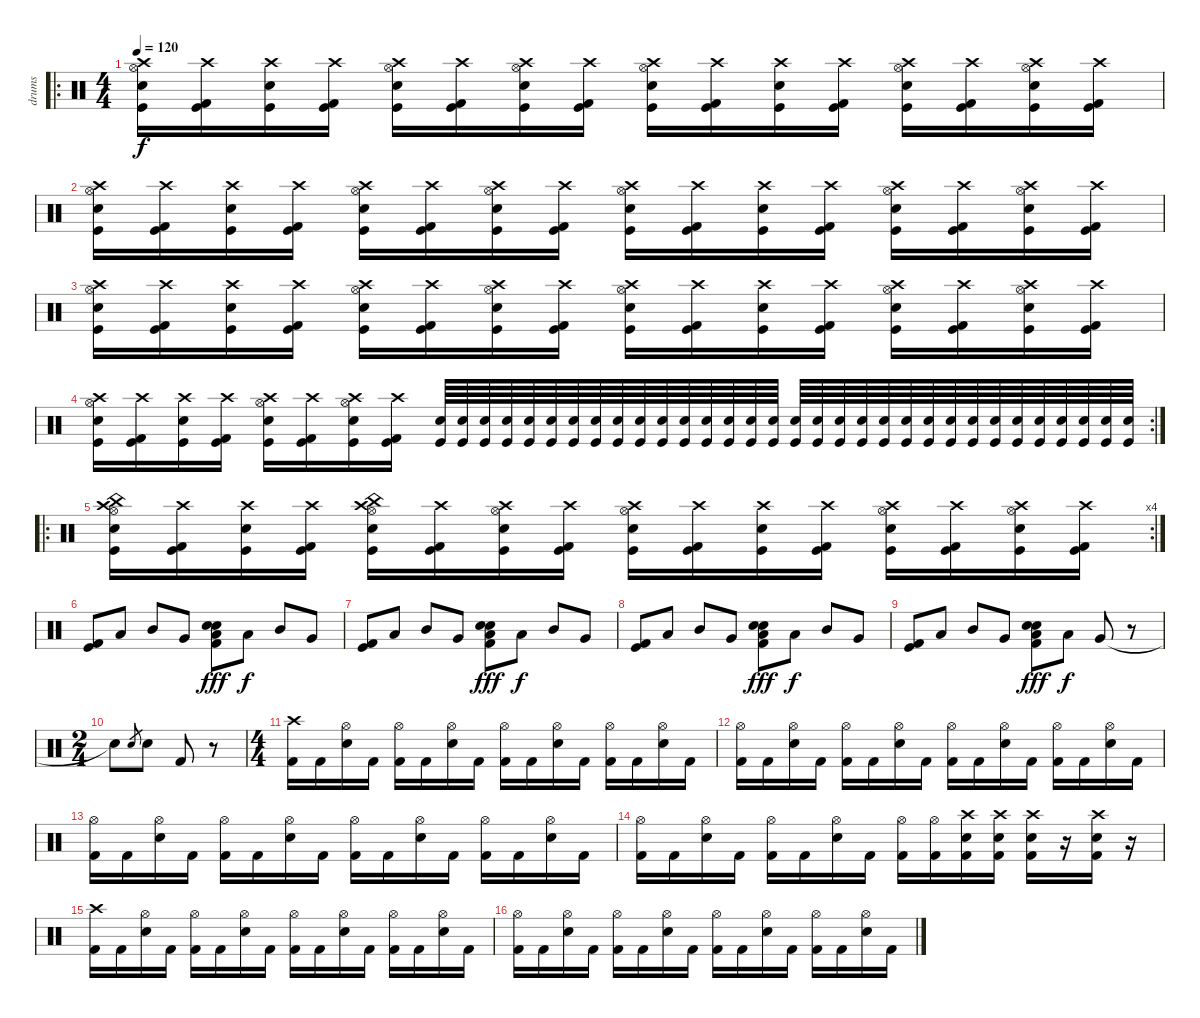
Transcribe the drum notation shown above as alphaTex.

\track ("drums" "drums") {instrument percussion}
\staff {score}
\articulation defaults
\ro
\ts (4 4)
\tempo 120
\clef neutral
\ks c
("Crash high (hit)" "Hi-Hat (open)" "Kick (hit)" "Electric Snare (hit)").16{dy f} ("Crash high (hit)" "Kick (hit)" "Kick (hit) 2").16 ("Crash high (hit)" "Kick (hit)" "Electric Snare (hit)").16 ("Crash high (hit)" "Kick (hit)" "Kick (hit) 2").16 ("Crash high (hit)" "Hi-Hat (open)" "Kick (hit)" "Electric Snare (hit)").16 ("Crash high (hit)" "Kick (hit)" "Kick (hit) 2").16 ("Crash high (hit)" "Hi-Hat (open)" "Kick (hit)" "Electric Snare (hit)").16 ("Crash high (hit)" "Kick (hit)" "Kick (hit) 2").16 ("Crash high (hit)" "Hi-Hat (open)" "Kick (hit)" "Electric Snare (hit)").16 ("Crash high (hit)" "Kick (hit)" "Kick (hit) 2").16 ("Crash high (hit)" "Kick (hit)" "Electric Snare (hit)").16 ("Crash high (hit)" "Kick (hit)" "Kick (hit) 2").16 ("Crash high (hit)" "Hi-Hat (open)" "Kick (hit)" "Electric Snare (hit)").16 ("Crash high (hit)" "Kick (hit)" "Kick (hit) 2").16 ("Crash high (hit)" "Hi-Hat (open)" "Kick (hit)" "Electric Snare (hit)").16 ("Crash high (hit)" "Kick (hit)" "Kick (hit) 2").16 |
("Crash high (hit)" "Hi-Hat (open)" "Kick (hit)" "Electric Snare (hit)").16 ("Crash high (hit)" "Kick (hit)" "Kick (hit) 2").16 ("Crash high (hit)" "Kick (hit)" "Electric Snare (hit)").16 ("Crash high (hit)" "Kick (hit)" "Kick (hit) 2").16 ("Crash high (hit)" "Hi-Hat (open)" "Kick (hit)" "Electric Snare (hit)").16 ("Crash high (hit)" "Kick (hit)" "Kick (hit) 2").16 ("Crash high (hit)" "Hi-Hat (open)" "Kick (hit)" "Electric Snare (hit)").16 ("Crash high (hit)" "Kick (hit)" "Kick (hit) 2").16 ("Crash high (hit)" "Hi-Hat (open)" "Kick (hit)" "Electric Snare (hit)").16 ("Crash high (hit)" "Kick (hit)" "Kick (hit) 2").16 ("Crash high (hit)" "Kick (hit)" "Electric Snare (hit)").16 ("Crash high (hit)" "Kick (hit)" "Kick (hit) 2").16 ("Crash high (hit)" "Hi-Hat (open)" "Kick (hit)" "Electric Snare (hit)").16 ("Crash high (hit)" "Kick (hit)" "Kick (hit) 2").16 ("Crash high (hit)" "Hi-Hat (open)" "Kick (hit)" "Electric Snare (hit)").16 ("Crash high (hit)" "Kick (hit)" "Kick (hit) 2").16 |
("Crash high (hit)" "Hi-Hat (open)" "Kick (hit)" "Electric Snare (hit)").16 ("Crash high (hit)" "Kick (hit)" "Kick (hit) 2").16 ("Crash high (hit)" "Kick (hit)" "Electric Snare (hit)").16 ("Crash high (hit)" "Kick (hit)" "Kick (hit) 2").16 ("Crash high (hit)" "Hi-Hat (open)" "Kick (hit)" "Electric Snare (hit)").16 ("Crash high (hit)" "Kick (hit)" "Kick (hit) 2").16 ("Crash high (hit)" "Hi-Hat (open)" "Kick (hit)" "Electric Snare (hit)").16 ("Crash high (hit)" "Kick (hit)" "Kick (hit) 2").16 ("Crash high (hit)" "Hi-Hat (open)" "Kick (hit)" "Electric Snare (hit)").16 ("Crash high (hit)" "Kick (hit)" "Kick (hit) 2").16 ("Crash high (hit)" "Kick (hit)" "Electric Snare (hit)").16 ("Crash high (hit)" "Kick (hit)" "Kick (hit) 2").16 ("Crash high (hit)" "Hi-Hat (open)" "Kick (hit)" "Electric Snare (hit)").16 ("Crash high (hit)" "Kick (hit)" "Kick (hit) 2").16 ("Crash high (hit)" "Hi-Hat (open)" "Kick (hit)" "Electric Snare (hit)").16 ("Crash high (hit)" "Kick (hit)" "Kick (hit) 2").16 |
\rc 2
("Crash high (hit)" "Hi-Hat (open)" "Kick (hit)" "Electric Snare (hit)").16 ("Crash high (hit)" "Kick (hit)" "Kick (hit) 2").16 ("Crash high (hit)" "Kick (hit)" "Electric Snare (hit)").16 ("Crash high (hit)" "Kick (hit)" "Kick (hit) 2").16 ("Crash high (hit)" "Hi-Hat (open)" "Kick (hit)" "Electric Snare (hit)").16 ("Crash high (hit)" "Kick (hit)" "Kick (hit) 2").16 ("Crash high (hit)" "Hi-Hat (open)" "Kick (hit)" "Electric Snare (hit)").16 ("Crash high (hit)" "Kick (hit)" "Kick (hit) 2").16 ("Kick (hit)" "Electric Snare (hit)").64 ("Kick (hit)" "Electric Snare (hit)").64 ("Kick (hit)" "Electric Snare (hit)").64 ("Kick (hit)" "Electric Snare (hit)").64 ("Kick (hit)" "Electric Snare (hit)").64 ("Kick (hit)" "Electric Snare (hit)").64 ("Kick (hit)" "Electric Snare (hit)").64 ("Kick (hit)" "Electric Snare (hit)").64 ("Kick (hit)" "Electric Snare (hit)").64 ("Kick (hit)" "Electric Snare (hit)").64 ("Kick (hit)" "Electric Snare (hit)").64 ("Kick (hit)" "Electric Snare (hit)").64 ("Kick (hit)" "Electric Snare (hit)").64 ("Kick (hit)" "Electric Snare (hit)").64 ("Kick (hit)" "Electric Snare (hit)").64 ("Kick (hit)" "Electric Snare (hit)").64 ("Kick (hit)" "Electric Snare (hit)").64 ("Kick (hit)" "Electric Snare (hit)").64 ("Kick (hit)" "Electric Snare (hit)").64 ("Kick (hit)" "Electric Snare (hit)").64 ("Kick (hit)" "Electric Snare (hit)").64 ("Kick (hit)" "Electric Snare (hit)").64 ("Kick (hit)" "Electric Snare (hit)").64 ("Kick (hit)" "Electric Snare (hit)").64 ("Kick (hit)" "Electric Snare (hit)").64 ("Kick (hit)" "Electric Snare (hit)").64 ("Kick (hit)" "Electric Snare (hit)").64 ("Kick (hit)" "Electric Snare (hit)").64 ("Kick (hit)" "Electric Snare (hit)").64 ("Kick (hit)" "Electric Snare (hit)").64 ("Kick (hit)" "Electric Snare (hit)").64 ("Kick (hit)" "Electric Snare (hit)").64 |
\ro
\rc 4
("Crash high (hit)" "Hi-Hat (open)" "China (hit)" "Kick (hit)" "Electric Snare (hit)").16 ("Crash high (hit)" "Kick (hit)" "Kick (hit) 2").16 ("Crash high (hit)" "Kick (hit)" "Electric Snare (hit)").16 ("Crash high (hit)" "Kick (hit)" "Kick (hit) 2").16 ("Crash high (hit)" "Hi-Hat (open)" "China (hit)" "Kick (hit)" "Electric Snare (hit)").16 ("Crash high (hit)" "Kick (hit)" "Kick (hit) 2").16 ("Crash high (hit)" "Hi-Hat (open)" "Kick (hit)" "Electric Snare (hit)").16 ("Crash high (hit)" "Kick (hit)" "Kick (hit) 2").16 ("Crash high (hit)" "Hi-Hat (open)" "Kick (hit)" "Electric Snare (hit)").16 ("Crash high (hit)" "Kick (hit)" "Kick (hit) 2").16 ("Crash high (hit)" "Kick (hit)" "Electric Snare (hit)").16 ("Crash high (hit)" "Kick (hit)" "Kick (hit) 2").16 ("Crash high (hit)" "Hi-Hat (open)" "Kick (hit)" "Electric Snare (hit)").16 ("Crash high (hit)" "Kick (hit)" "Kick (hit) 2").16 ("Crash high (hit)" "Hi-Hat (open)" "Kick (hit)" "Electric Snare (hit)").16 ("Crash high (hit)" "Kick (hit)" "Kick (hit) 2").16 |
("Kick (hit)" "Kick (hit) 2").8 "Low Tom (hit)".8 "Mid Tom (hit)".8 "Very Low Tom (hit)".8 ("Low Floor Tom (hit)" "Kick (hit) 2" "Electric Snare (hit)" "Electric Snare (hit)").8{dy fff} "Low Tom (hit)".8{dy f} "Mid Tom (hit)".8 "Very Low Tom (hit)".8 |
("Kick (hit)" "Kick (hit) 2").8 "Low Tom (hit)".8 "Mid Tom (hit)".8 "Very Low Tom (hit)".8 ("Low Floor Tom (hit)" "Kick (hit) 2" "Electric Snare (hit)" "Electric Snare (hit)").8{dy fff} "Low Tom (hit)".8{dy f} "Mid Tom (hit)".8 "Very Low Tom (hit)".8 |
("Kick (hit)" "Kick (hit) 2").8 "Low Tom (hit)".8 "Mid Tom (hit)".8 "Very Low Tom (hit)".8 ("Low Floor Tom (hit)" "Kick (hit) 2" "Electric Snare (hit)" "Electric Snare (hit)").8{dy fff} "Low Tom (hit)".8{dy f} "Mid Tom (hit)".8 "Very Low Tom (hit)".8 |
("Kick (hit)" "Kick (hit) 2").8 "Low Tom (hit)".8 "Mid Tom (hit)".8 "Very Low Tom (hit)".8 ("Low Floor Tom (hit)" "Kick (hit) 2" "Electric Snare (hit)" "Electric Snare (hit)").8{dy fff} "Low Tom (hit)".8{dy f} "Very Low Tom (hit)".8 r.8 |
\ts (2 4)
"Snare (hit)"{t}.8 "Electric Snare (hit)".8{gr} "Electric Snare (hit)".8 "Kick (hit) 2".8 r.8 |
\ts (4 4)
("Crash high (hit)" "Kick (hit) 2").16 "Kick (hit) 2".16 ("Hi-Hat (open)" "Electric Snare (hit)").16 "Kick (hit) 2".16 ("Hi-Hat (open)" "Kick (hit) 2").16 "Kick (hit) 2".16 ("Hi-Hat (open)" "Electric Snare (hit)").16 "Kick (hit) 2".16 ("Hi-Hat (open)" "Kick (hit) 2").16 "Kick (hit) 2".16 ("Hi-Hat (open)" "Electric Snare (hit)").16 "Kick (hit) 2".16 ("Hi-Hat (open)" "Kick (hit) 2").16 "Kick (hit) 2".16 ("Hi-Hat (open)" "Electric Snare (hit)").16 "Kick (hit) 2".16 |
("Hi-Hat (open)" "Kick (hit) 2").16 "Kick (hit) 2".16 ("Hi-Hat (open)" "Electric Snare (hit)").16 "Kick (hit) 2".16 ("Hi-Hat (open)" "Kick (hit) 2").16 "Kick (hit) 2".16 ("Hi-Hat (open)" "Electric Snare (hit)").16 "Kick (hit) 2".16 ("Hi-Hat (open)" "Kick (hit) 2").16 "Kick (hit) 2".16 ("Hi-Hat (open)" "Electric Snare (hit)").16 "Kick (hit) 2".16 ("Hi-Hat (open)" "Kick (hit) 2").16 "Kick (hit) 2".16 ("Hi-Hat (open)" "Electric Snare (hit)").16 "Kick (hit) 2".16 |
("Hi-Hat (open)" "Kick (hit) 2").16 "Kick (hit) 2".16 ("Hi-Hat (open)" "Electric Snare (hit)").16 "Kick (hit) 2".16 ("Hi-Hat (open)" "Kick (hit) 2").16 "Kick (hit) 2".16 ("Hi-Hat (open)" "Electric Snare (hit)").16 "Kick (hit) 2".16 ("Hi-Hat (open)" "Kick (hit) 2").16 "Kick (hit) 2".16 ("Hi-Hat (open)" "Electric Snare (hit)").16 "Kick (hit) 2".16 ("Hi-Hat (open)" "Kick (hit) 2").16 "Kick (hit) 2".16 ("Hi-Hat (open)" "Electric Snare (hit)").16 "Kick (hit) 2".16 |
("Hi-Hat (open)" "Kick (hit) 2").16 "Kick (hit) 2".16 ("Hi-Hat (open)" "Electric Snare (hit)").16 "Kick (hit) 2".16 ("Hi-Hat (open)" "Kick (hit) 2").16 "Kick (hit) 2".16 ("Hi-Hat (open)" "Electric Snare (hit)").16 "Kick (hit) 2".16 ("Hi-Hat (open)" "Kick (hit) 2").16 ("Hi-Hat (open)" "Kick (hit) 2").16 ("Crash high (hit)" "Kick (hit) 2" "Electric Snare (hit)").16 ("Crash high (hit)" "Kick (hit) 2" "Electric Snare (hit)").16 ("Crash high (hit)" "Kick (hit) 2" "Electric Snare (hit)").16 r.16 ("Crash high (hit)" "Kick (hit) 2" "Electric Snare (hit)").16 r.16 |
("Crash high (hit)" "Kick (hit) 2").16 "Kick (hit) 2".16 ("Hi-Hat (open)" "Electric Snare (hit)").16 "Kick (hit) 2".16 ("Hi-Hat (open)" "Kick (hit) 2").16 "Kick (hit) 2".16 ("Hi-Hat (open)" "Electric Snare (hit)").16 "Kick (hit) 2".16 ("Hi-Hat (open)" "Kick (hit) 2").16 "Kick (hit) 2".16 ("Hi-Hat (open)" "Electric Snare (hit)").16 "Kick (hit) 2".16 ("Hi-Hat (open)" "Kick (hit) 2").16 "Kick (hit) 2".16 ("Hi-Hat (open)" "Electric Snare (hit)").16 "Kick (hit) 2".16 |
("Hi-Hat (open)" "Kick (hit) 2").16 "Kick (hit) 2".16 ("Hi-Hat (open)" "Electric Snare (hit)").16 "Kick (hit) 2".16 ("Hi-Hat (open)" "Kick (hit) 2").16 "Kick (hit) 2".16 ("Hi-Hat (open)" "Electric Snare (hit)").16 "Kick (hit) 2".16 ("Hi-Hat (open)" "Kick (hit) 2").16 "Kick (hit) 2".16 ("Hi-Hat (open)" "Electric Snare (hit)").16 "Kick (hit) 2".16 ("Hi-Hat (open)" "Kick (hit) 2").16 "Kick (hit) 2".16 ("Hi-Hat (open)" "Electric Snare (hit)").16 "Kick (hit) 2".16
